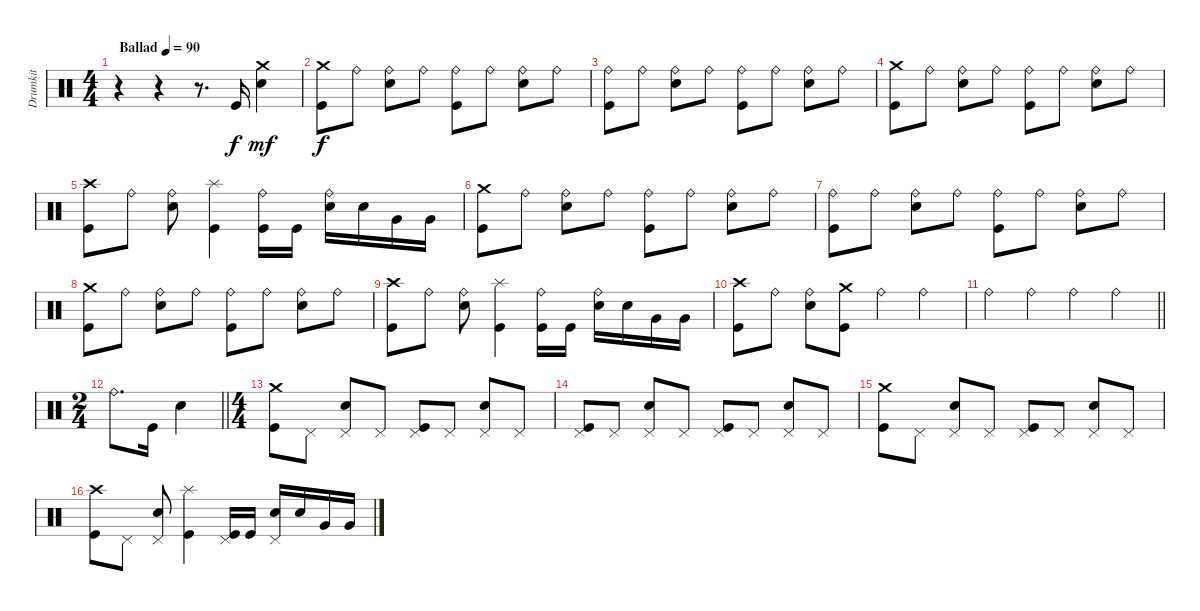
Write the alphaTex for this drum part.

\track ("Drumkit" "Drumkit") {instrument percussion}
\staff {score}
\articulation defaults
\ts (4 4)
\tempo (90 "Ballad")
\clef neutral
\ks c
r.4{dy f} r.4 r.8{d} "Kick (hit)".16 ("Snare (hit) 2" "Crash medium (hit)").4{dy mf} |
("Crash medium (hit)" "Kick (hit)").8{dy f} "Ride (bell)".8 ("Ride (bell)" "Snare (hit) 2").8 "Ride (bell)".8 ("Ride (bell)" "Kick (hit)").8 "Ride (bell)".8 ("Ride (bell)" "Snare (hit) 2").8 "Ride (bell)".8 |
("Ride (bell)" "Kick (hit)").8 "Ride (bell)".8 ("Ride (bell)" "Snare (hit) 2").8 "Ride (bell)".8 ("Ride (bell)" "Kick (hit)").8 "Ride (bell)".8 ("Ride (bell)" "Snare (hit) 2").8 "Ride (bell)".8 |
("Crash medium (hit)" "Kick (hit)").8 "Ride (bell)".8 ("Ride (bell)" "Snare (hit) 2").8 "Ride (bell)".8 ("Ride (bell)" "Kick (hit)").8 "Ride (bell)".8 ("Ride (bell)" "Snare (hit) 2").8 "Ride (bell)".8 |
("Crash high (hit)" "Kick (hit)").8 "Ride (bell)".8 ("Ride (bell)" "Snare (hit) 2").8 ("Splash (hit)" "Kick (hit)").4 ("Ride (bell)" "Kick (hit)").16 "Kick (hit)".16 ("Ride (bell)" "Snare (hit) 2").16 "Snare (hit) 2".16 "Very Low Tom (hit)".16 "Very Low Tom (hit)".16 |
("Crash medium (hit)" "Kick (hit)").8 "Ride (bell)".8 ("Ride (bell)" "Snare (hit) 2").8 "Ride (bell)".8 ("Ride (bell)" "Kick (hit)").8 "Ride (bell)".8 ("Ride (bell)" "Snare (hit) 2").8 "Ride (bell)".8 |
("Ride (bell)" "Kick (hit)").8 "Ride (bell)".8 ("Ride (bell)" "Snare (hit) 2").8 "Ride (bell)".8 ("Ride (bell)" "Kick (hit)").8 "Ride (bell)".8 ("Ride (bell)" "Snare (hit) 2").8 "Ride (bell)".8 |
("Crash medium (hit)" "Kick (hit)").8 "Ride (bell)".8 ("Ride (bell)" "Snare (hit) 2").8 "Ride (bell)".8 ("Ride (bell)" "Kick (hit)").8 "Ride (bell)".8 ("Ride (bell)" "Snare (hit) 2").8 "Ride (bell)".8 |
("Crash high (hit)" "Kick (hit)").8 "Ride (bell)".8 ("Ride (bell)" "Snare (hit) 2").8 ("Splash (hit)" "Kick (hit)").4 ("Ride (bell)" "Kick (hit)").16 "Kick (hit)".16 ("Ride (bell)" "Snare (hit) 2").16 "Snare (hit) 2".16 "Very Low Tom (hit)".16 "Very Low Tom (hit)".16 |
("Crash high (hit)" "Kick (hit)").8 "Ride (bell)".8 ("Ride (bell)" "Snare (hit) 2").8 ("Crash medium (hit)" "Kick (hit)").8 "Ride (bell)".4 "Ride (bell)".4 |
\barLineRight lightlight "Ride (bell)".4 "Ride (bell)".4 "Ride (bell)".4 "Ride (bell)".4
|
\ts (2 4)
\barLineRight lightlight "Ride (bell)".8{d} "Kick (hit)".16 "Snare (hit) 2".4
|
\ts (4 4)
("Crash medium (hit)" "Kick (hit)").8 "Pedal Hi-Hat (hit)".8 ("Pedal Hi-Hat (hit)" "Snare (hit) 2").8 "Pedal Hi-Hat (hit)".8 ("Pedal Hi-Hat (hit)" "Kick (hit)").8 "Pedal Hi-Hat (hit)".8 ("Pedal Hi-Hat (hit)" "Snare (hit) 2").8 "Pedal Hi-Hat (hit)".8 |
("Pedal Hi-Hat (hit)" "Kick (hit)").8 "Pedal Hi-Hat (hit)".8 ("Pedal Hi-Hat (hit)" "Snare (hit) 2").8 "Pedal Hi-Hat (hit)".8 ("Pedal Hi-Hat (hit)" "Kick (hit)").8 "Pedal Hi-Hat (hit)".8 ("Pedal Hi-Hat (hit)" "Snare (hit) 2").8 "Pedal Hi-Hat (hit)".8 |
("Crash medium (hit)" "Kick (hit)").8 "Pedal Hi-Hat (hit)".8 ("Pedal Hi-Hat (hit)" "Snare (hit) 2").8 "Pedal Hi-Hat (hit)".8 ("Pedal Hi-Hat (hit)" "Kick (hit)").8 "Pedal Hi-Hat (hit)".8 ("Pedal Hi-Hat (hit)" "Snare (hit) 2").8 "Pedal Hi-Hat (hit)".8 |
("Crash high (hit)" "Kick (hit)").8 "Pedal Hi-Hat (hit)".8 ("Pedal Hi-Hat (hit)" "Snare (hit) 2").8 ("Splash (hit)" "Kick (hit)").4 ("Pedal Hi-Hat (hit)" "Kick (hit)").16 "Kick (hit)".16 ("Pedal Hi-Hat (hit)" "Snare (hit) 2").16 "Snare (hit) 2".16 "Very Low Tom (hit)".16 "Very Low Tom (hit)".16
